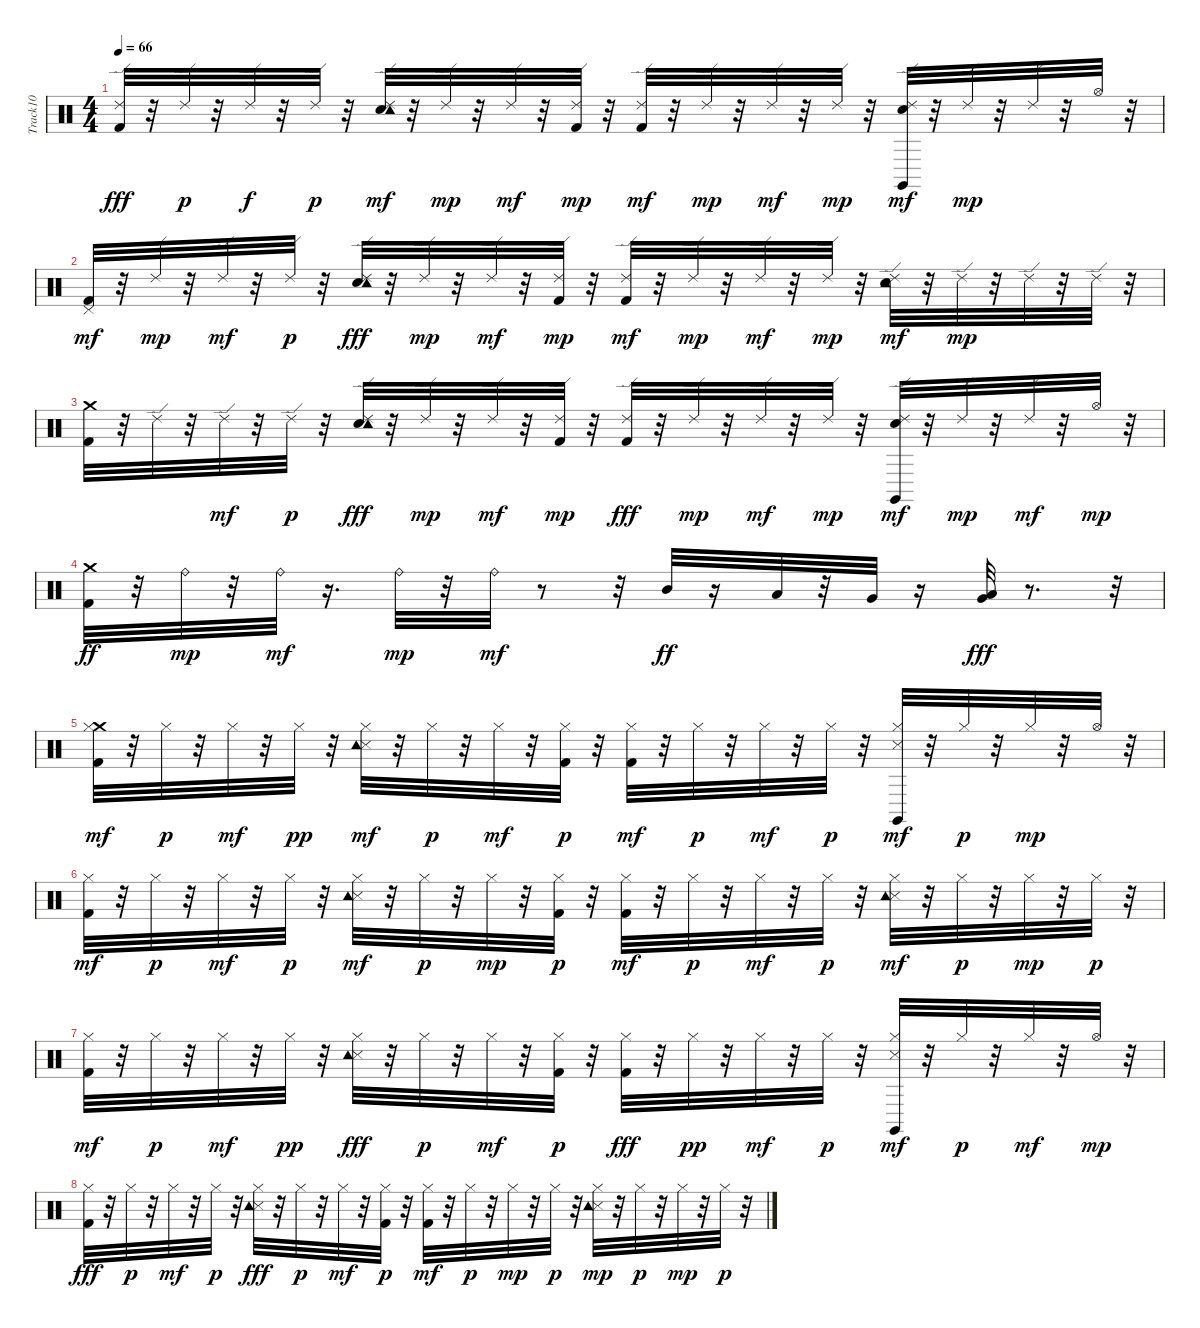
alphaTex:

\track ("Track10" "Track10") {instrument percussion}
\staff {score}
\articulation defaults
\ts (4 4)
\tempo 66
\clef neutral
\ks c
("Kick (hit) 2" "Ride (edge) 2").32{dy fff} r.32 "Ride (edge) 2".32{dy p} r.32 "Ride (edge) 2".32{dy f} r.32 "Ride (edge) 2".32{dy p} r.32 ("Snare (hit) 2" "Ride (edge) 2" "Tambourine (hit)").32{dy mf} r.32 "Ride (edge) 2".32{dy mp} r.32 "Ride (edge) 2".32{dy mf} r.32 ("Kick (hit) 2" "Ride (edge) 2").32{dy mp} r.32 ("Kick (hit) 2" "Ride (edge) 2").32{dy mf} r.32 "Ride (edge) 2".32{dy mp} r.32 "Ride (edge) 2".32{dy mf} r.32 "Ride (edge) 2".32{dy mp} r.32 ("Snare (hit) 2" "Ride (edge) 2" "Claves (hit)").32{dy mf} r.32 "Ride (edge) 2".32{dy mp} r.32 "Ride (edge) 2".32 r.32 "Hi-Hat (open)".32 r.32 |
("Kick (hit) 2" "Pedal Hi-Hat (hit)").32{dy mf} r.32 "Ride (edge) 2".32{dy mp} r.32 "Ride (edge) 2".32{dy mf} r.32 "Ride (edge) 2".32{dy p} r.32 ("Snare (hit) 2" "Ride (edge) 2" "Tambourine (hit)").32{dy fff} r.32 "Ride (edge) 2".32{dy mp} r.32 "Ride (edge) 2".32{dy mf} r.32 ("Kick (hit) 2" "Ride (edge) 2").32{dy mp} r.32 ("Kick (hit) 2" "Ride (edge) 2").32{dy mf} r.32 "Ride (edge) 2".32{dy mp} r.32 "Ride (edge) 2".32{dy mf} r.32 "Ride (edge) 2".32{dy mp} r.32 ("Snare (hit) 2" "Ride (edge) 2" "Tambourine (hit)").32{dy mf} r.32 "Ride (edge) 2".32{dy mp} r.32 "Ride (edge) 2".32 r.32 "Ride (edge) 2".32 r.32 |
("Kick (hit) 2" "Crash medium (hit)").32 r.32 "Ride (edge) 2".32 r.32 "Ride (edge) 2".32{dy mf} r.32 "Ride (edge) 2".32{dy p} r.32 ("Snare (hit) 2" "Ride (edge) 2" "Tambourine (hit)").32{dy fff} r.32 "Ride (edge) 2".32{dy mp} r.32 "Ride (edge) 2".32{dy mf} r.32 ("Kick (hit) 2" "Ride (edge) 2").32{dy mp} r.32 ("Kick (hit) 2" "Ride (edge) 2").32{dy fff} r.32 "Ride (edge) 2".32{dy mp} r.32 "Ride (edge) 2".32{dy mf} r.32 "Ride (edge) 2".32{dy mp} r.32 ("Snare (hit) 2" "Ride (edge) 2" "Claves (hit)").32{dy mf} r.32 "Ride (edge) 2".32{dy mp} r.32 "Ride (edge) 2".32{dy mf} r.32 "Hi-Hat (open)".32{dy mp} r.32 |
("Kick (hit) 2" "Crash medium (hit)").32{dy ff} r.32 "Ride (bell)".32{dy mp} r.32 "Ride (bell)".32{dy mf} r.16{d} "Ride (bell)".32{dy mp} r.32 "Ride (bell)".32{dy mf} r.8 r.32 "Mid Tom (hit)".32{dy ff} r.16 "Low Tom (hit)".32 r.32 "Very Low Tom (hit)".32 r.16 ("Very Low Tom (hit)" "Low Floor Tom (hit)").32{dy fff} r.8{d} r.32 |
("Crash medium (hit)" "Kick (hit) 2" "Hi-Hat (closed)").32{dy mf} r.32 "Hi-Hat (closed)".32{dy p} r.32 "Hi-Hat (closed)".32{dy mf} r.32 "Hi-Hat (closed)".32{dy pp} r.32 ("Snare (side stick) 3" "Tambourine (hit)" "Hi-Hat (closed)").32{dy mf} r.32 "Hi-Hat (closed)".32{dy p} r.32 "Hi-Hat (closed)".32{dy mf} r.32 ("Kick (hit) 2" "Hi-Hat (closed)").32{dy p} r.32 ("Kick (hit) 2" "Hi-Hat (closed)").32{dy mf} r.32 "Hi-Hat (closed)".32{dy p} r.32 "Hi-Hat (closed)".32{dy mf} r.32 "Hi-Hat (closed)".32{dy p} r.32 ("Snare (side stick) 3" "Claves (hit)" "Hi-Hat (closed)").32{dy mf} r.32 "Hi-Hat (closed)".32{dy p} r.32 "Hi-Hat (closed)".32{dy mp} r.32 "Hi-Hat (open)".32 r.32 |
("Kick (hit) 2" "Hi-Hat (closed)").32{dy mf} r.32 "Hi-Hat (closed)".32{dy p} r.32 "Hi-Hat (closed)".32{dy mf} r.32 "Hi-Hat (closed)".32{dy p} r.32 ("Snare (side stick) 3" "Tambourine (hit)" "Hi-Hat (closed)").32{dy mf} r.32 "Hi-Hat (closed)".32{dy p} r.32 "Hi-Hat (closed)".32{dy mp} r.32 ("Kick (hit) 2" "Hi-Hat (closed)").32{dy p} r.32 ("Kick (hit) 2" "Hi-Hat (closed)").32{dy mf} r.32 "Hi-Hat (closed)".32{dy p} r.32 "Hi-Hat (closed)".32{dy mf} r.32 "Hi-Hat (closed)".32{dy p} r.32 ("Snare (side stick) 3" "Tambourine (hit)" "Hi-Hat (closed)").32{dy mf} r.32 "Hi-Hat (closed)".32{dy p} r.32 "Hi-Hat (closed)".32{dy mp} r.32 "Hi-Hat (closed)".32{dy p} r.32 |
("Kick (hit) 2" "Hi-Hat (closed)").32{dy mf} r.32 "Hi-Hat (closed)".32{dy p} r.32 "Hi-Hat (closed)".32{dy mf} r.32 "Hi-Hat (closed)".32{dy pp} r.32 ("Snare (side stick) 3" "Tambourine (hit)" "Hi-Hat (closed)").32{dy fff} r.32 "Hi-Hat (closed)".32{dy p} r.32 "Hi-Hat (closed)".32{dy mf} r.32 ("Kick (hit) 2" "Hi-Hat (closed)").32{dy p} r.32 ("Kick (hit) 2" "Hi-Hat (closed)").32{dy fff} r.32 "Hi-Hat (closed)".32{dy pp} r.32 "Hi-Hat (closed)".32{dy mf} r.32 "Hi-Hat (closed)".32{dy p} r.32 ("Snare (side stick) 3" "Claves (hit)" "Hi-Hat (closed)").32{dy mf} r.32 "Hi-Hat (closed)".32{dy p} r.32 "Hi-Hat (closed)".32{dy mf} r.32 "Hi-Hat (open)".32{dy mp} r.32 |
("Kick (hit) 2" "Hi-Hat (closed)").32{dy fff} r.32 "Hi-Hat (closed)".32{dy p} r.32 "Hi-Hat (closed)".32{dy mf} r.32 "Hi-Hat (closed)".32{dy p} r.32 ("Snare (side stick) 3" "Tambourine (hit)" "Hi-Hat (closed)").32{dy fff} r.32 "Hi-Hat (closed)".32{dy p} r.32 "Hi-Hat (closed)".32{dy mf} r.32 ("Kick (hit) 2" "Hi-Hat (closed)").32{dy p} r.32 ("Kick (hit) 2" "Hi-Hat (closed)").32{dy mf} r.32 "Hi-Hat (closed)".32{dy p} r.32 "Hi-Hat (closed)".32{dy mp} r.32 "Hi-Hat (closed)".32{dy p} r.32 ("Snare (side stick) 3" "Tambourine (hit)" "Hi-Hat (closed)").32{dy mp} r.32 "Hi-Hat (closed)".32{dy p} r.32 "Hi-Hat (closed)".32{dy mp} r.32 "Hi-Hat (closed)".32{dy p} r.32
